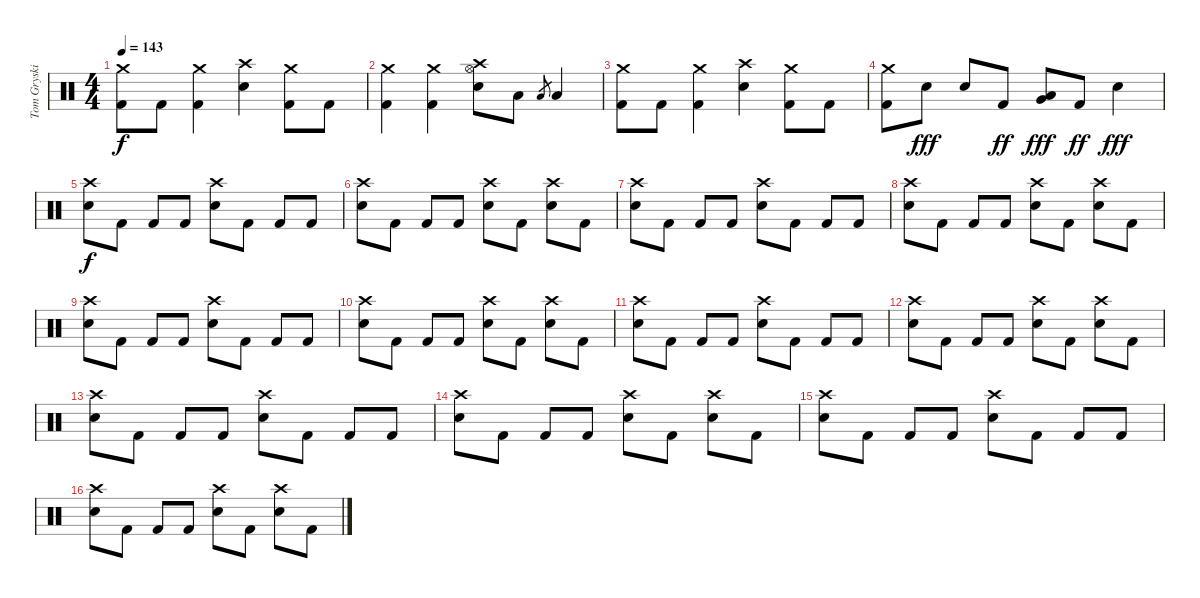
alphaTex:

\track ("Tom Gryskiewicz - Drums" "Tom Gryski") {instrument percussion}
\staff {score}
\articulation defaults
\ts (4 4)
\tempo 143
\clef neutral
\ks c
("Crash medium (hit)" "Kick (hit) 2").8{dy f} "Kick (hit) 2".8 ("Crash medium (hit)" "Kick (hit) 2").4 ("Crash high (hit)" "Electric Snare (hit)").4 ("Crash medium (hit)" "Kick (hit) 2").8 "Kick (hit) 2".8 |
("Crash medium (hit)" "Kick (hit) 2").4 ("Crash medium (hit)" "Kick (hit) 2").4 ("Crash high (hit)" "Hi-Hat (open)" "Electric Snare (hit)").8 "Low Tom (hit)".8 "Low Tom (hit)".8{gr} "Low Tom (hit)".4 |
("Crash medium (hit)" "Kick (hit) 2").8 "Kick (hit) 2".8 ("Crash medium (hit)" "Kick (hit) 2").4 ("Crash high (hit)" "Electric Snare (hit)").4 ("Crash medium (hit)" "Kick (hit) 2").8 "Kick (hit) 2".8 |
("Crash medium (hit)" "Kick (hit) 2").8 "Electric Snare (hit)".8{dy fff} "Electric Snare (hit)".8 "Kick (hit) 2".8{dy ff} ("Very Low Tom (hit)" "Low Tom (hit)").8{dy fff} "Kick (hit) 2".8{dy ff} "Electric Snare (hit)".4{dy fff} |
("Crash high (hit)" "Electric Snare (hit)").8{dy f} "Kick (hit) 2".8 "Kick (hit) 2".8 "Kick (hit) 2".8 ("Crash high (hit)" "Electric Snare (hit)").8 "Kick (hit) 2".8 "Kick (hit) 2".8 "Kick (hit) 2".8 |
("Crash high (hit)" "Electric Snare (hit)").8 "Kick (hit) 2".8 "Kick (hit) 2".8 "Kick (hit) 2".8 ("Crash high (hit)" "Electric Snare (hit)").8 "Kick (hit) 2".8 ("Crash high (hit)" "Electric Snare (hit)").8 "Kick (hit) 2".8 |
("Crash high (hit)" "Electric Snare (hit)").8 "Kick (hit) 2".8 "Kick (hit) 2".8 "Kick (hit) 2".8 ("Crash high (hit)" "Electric Snare (hit)").8 "Kick (hit) 2".8 "Kick (hit) 2".8 "Kick (hit) 2".8 |
("Crash high (hit)" "Electric Snare (hit)").8 "Kick (hit) 2".8 "Kick (hit) 2".8 "Kick (hit) 2".8 ("Crash high (hit)" "Electric Snare (hit)").8 "Kick (hit) 2".8 ("Crash high (hit)" "Electric Snare (hit)").8 "Kick (hit) 2".8 |
("Crash high (hit)" "Electric Snare (hit)").8 "Kick (hit) 2".8 "Kick (hit) 2".8 "Kick (hit) 2".8 ("Crash high (hit)" "Electric Snare (hit)").8 "Kick (hit) 2".8 "Kick (hit) 2".8 "Kick (hit) 2".8 |
("Crash high (hit)" "Electric Snare (hit)").8 "Kick (hit) 2".8 "Kick (hit) 2".8 "Kick (hit) 2".8 ("Crash high (hit)" "Electric Snare (hit)").8 "Kick (hit) 2".8 ("Crash high (hit)" "Electric Snare (hit)").8 "Kick (hit) 2".8 |
("Crash high (hit)" "Electric Snare (hit)").8 "Kick (hit) 2".8 "Kick (hit) 2".8 "Kick (hit) 2".8 ("Crash high (hit)" "Electric Snare (hit)").8 "Kick (hit) 2".8 "Kick (hit) 2".8 "Kick (hit) 2".8 |
("Crash high (hit)" "Electric Snare (hit)").8 "Kick (hit) 2".8 "Kick (hit) 2".8 "Kick (hit) 2".8 ("Crash high (hit)" "Electric Snare (hit)").8 "Kick (hit) 2".8 ("Crash high (hit)" "Electric Snare (hit)").8 "Kick (hit) 2".8 |
("Crash high (hit)" "Electric Snare (hit)").8 "Kick (hit) 2".8 "Kick (hit) 2".8 "Kick (hit) 2".8 ("Crash high (hit)" "Electric Snare (hit)").8 "Kick (hit) 2".8 "Kick (hit) 2".8 "Kick (hit) 2".8 |
("Crash high (hit)" "Electric Snare (hit)").8 "Kick (hit) 2".8 "Kick (hit) 2".8 "Kick (hit) 2".8 ("Crash high (hit)" "Electric Snare (hit)").8 "Kick (hit) 2".8 ("Crash high (hit)" "Electric Snare (hit)").8 "Kick (hit) 2".8 |
("Crash high (hit)" "Electric Snare (hit)").8 "Kick (hit) 2".8 "Kick (hit) 2".8 "Kick (hit) 2".8 ("Crash high (hit)" "Electric Snare (hit)").8 "Kick (hit) 2".8 "Kick (hit) 2".8 "Kick (hit) 2".8 |
("Crash high (hit)" "Electric Snare (hit)").8 "Kick (hit) 2".8 "Kick (hit) 2".8 "Kick (hit) 2".8 ("Crash high (hit)" "Electric Snare (hit)").8 "Kick (hit) 2".8 ("Crash high (hit)" "Electric Snare (hit)").8 "Kick (hit) 2".8
